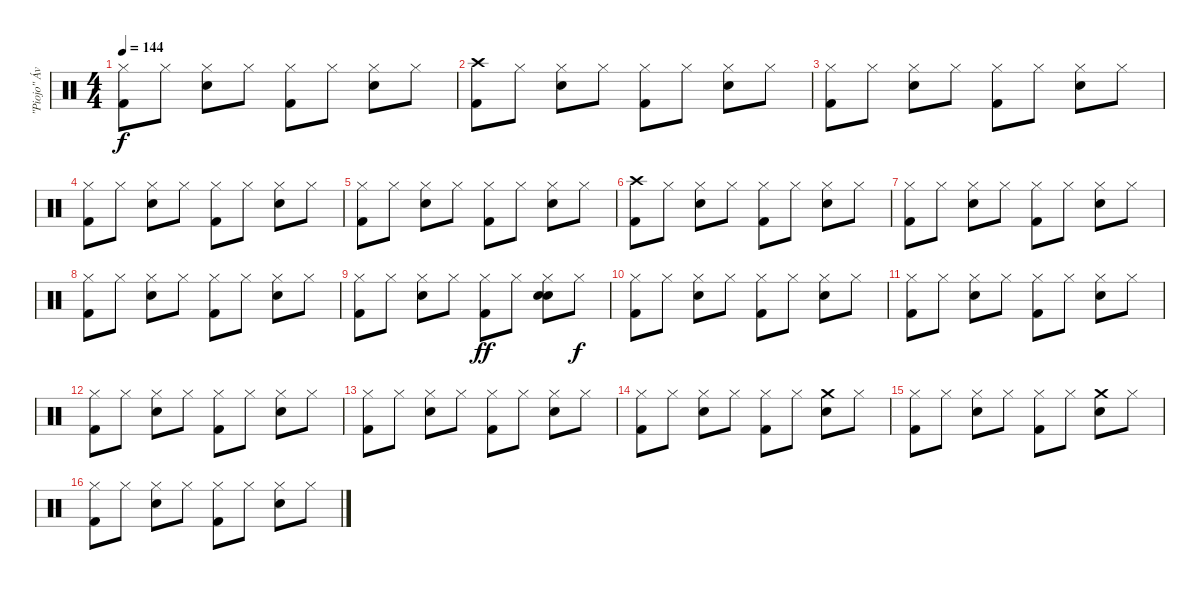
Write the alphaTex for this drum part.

\track ("\"Piojo\" Ávalos" "\"Piojo\" Áv") {instrument percussion}
\staff {score}
\articulation defaults
\ts (4 4)
\tempo 144
\clef neutral
\ks c
("Hi-Hat (closed)" "Kick (hit) 2").8{dy f} "Hi-Hat (closed)".8 ("Hi-Hat (closed)" "Electric Snare (hit)").8 "Hi-Hat (closed)".8 ("Hi-Hat (closed)" "Kick (hit) 2").8 "Hi-Hat (closed)".8 ("Hi-Hat (closed)" "Electric Snare (hit)").8 "Hi-Hat (closed)".8 |
("Crash high (hit)" "Kick (hit) 2").8 "Hi-Hat (closed)".8 ("Hi-Hat (closed)" "Electric Snare (hit)").8 "Hi-Hat (closed)".8 ("Hi-Hat (closed)" "Kick (hit) 2").8 "Hi-Hat (closed)".8 ("Hi-Hat (closed)" "Electric Snare (hit)").8 "Hi-Hat (closed)".8 |
("Hi-Hat (closed)" "Kick (hit) 2").8 "Hi-Hat (closed)".8 ("Hi-Hat (closed)" "Electric Snare (hit)").8 "Hi-Hat (closed)".8 ("Hi-Hat (closed)" "Kick (hit) 2").8 "Hi-Hat (closed)".8 ("Hi-Hat (closed)" "Electric Snare (hit)").8 "Hi-Hat (closed)".8 |
("Hi-Hat (closed)" "Kick (hit) 2").8 "Hi-Hat (closed)".8 ("Hi-Hat (closed)" "Electric Snare (hit)").8 "Hi-Hat (closed)".8 ("Hi-Hat (closed)" "Kick (hit) 2").8 "Hi-Hat (closed)".8 ("Hi-Hat (closed)" "Electric Snare (hit)").8 "Hi-Hat (closed)".8 |
("Hi-Hat (closed)" "Kick (hit) 2").8 "Hi-Hat (closed)".8 ("Hi-Hat (closed)" "Electric Snare (hit)").8 "Hi-Hat (closed)".8 ("Hi-Hat (closed)" "Kick (hit) 2").8 "Hi-Hat (closed)".8 ("Hi-Hat (closed)" "Electric Snare (hit)").8 "Hi-Hat (closed)".8 |
("Crash high (hit)" "Kick (hit) 2").8 "Hi-Hat (closed)".8 ("Hi-Hat (closed)" "Electric Snare (hit)").8 "Hi-Hat (closed)".8 ("Hi-Hat (closed)" "Kick (hit) 2").8 "Hi-Hat (closed)".8 ("Hi-Hat (closed)" "Electric Snare (hit)").8 "Hi-Hat (closed)".8 |
("Hi-Hat (closed)" "Kick (hit) 2").8 "Hi-Hat (closed)".8 ("Hi-Hat (closed)" "Electric Snare (hit)").8 "Hi-Hat (closed)".8 ("Hi-Hat (closed)" "Kick (hit) 2").8 "Hi-Hat (closed)".8 ("Hi-Hat (closed)" "Electric Snare (hit)").8 "Hi-Hat (closed)".8 |
("Hi-Hat (closed)" "Kick (hit) 2").8 "Hi-Hat (closed)".8 ("Hi-Hat (closed)" "Electric Snare (hit)").8 "Hi-Hat (closed)".8 ("Hi-Hat (closed)" "Kick (hit) 2").8 "Hi-Hat (closed)".8 ("Hi-Hat (closed)" "Electric Snare (hit)").8 "Hi-Hat (closed)".8 |
("Hi-Hat (closed)" "Kick (hit) 2").8 "Hi-Hat (closed)".8 ("Hi-Hat (closed)" "Electric Snare (hit)").8 "Hi-Hat (closed)".8 ("Hi-Hat (closed)" "Kick (hit) 2").8{dy ff} "Hi-Hat (closed)".8 ("Hi-Hat (closed)" "Electric Snare (hit)" "Electric Snare (hit)").8 "Hi-Hat (closed)".8{dy f} |
("Hi-Hat (closed)" "Kick (hit) 2").8 "Hi-Hat (closed)".8 ("Hi-Hat (closed)" "Electric Snare (hit)").8 "Hi-Hat (closed)".8 ("Hi-Hat (closed)" "Kick (hit) 2").8 "Hi-Hat (closed)".8 ("Hi-Hat (closed)" "Electric Snare (hit)").8 "Hi-Hat (closed)".8 |
("Hi-Hat (closed)" "Kick (hit) 2").8 "Hi-Hat (closed)".8 ("Hi-Hat (closed)" "Electric Snare (hit)").8 "Hi-Hat (closed)".8 ("Hi-Hat (closed)" "Kick (hit) 2").8 "Hi-Hat (closed)".8 ("Hi-Hat (closed)" "Electric Snare (hit)").8 "Hi-Hat (closed)".8 |
("Hi-Hat (closed)" "Kick (hit) 2").8 "Hi-Hat (closed)".8 ("Hi-Hat (closed)" "Electric Snare (hit)").8 "Hi-Hat (closed)".8 ("Hi-Hat (closed)" "Kick (hit) 2").8 "Hi-Hat (closed)".8 ("Hi-Hat (closed)" "Electric Snare (hit)").8 "Hi-Hat (closed)".8 |
("Hi-Hat (closed)" "Kick (hit) 2").8 "Hi-Hat (closed)".8 ("Hi-Hat (closed)" "Electric Snare (hit)").8 "Hi-Hat (closed)".8 ("Hi-Hat (closed)" "Kick (hit) 2").8 "Hi-Hat (closed)".8 ("Hi-Hat (closed)" "Electric Snare (hit)").8 "Hi-Hat (closed)".8 |
("Hi-Hat (closed)" "Kick (hit) 2").8 "Hi-Hat (closed)".8 ("Hi-Hat (closed)" "Electric Snare (hit)").8 "Hi-Hat (closed)".8 ("Hi-Hat (closed)" "Kick (hit) 2").8 "Hi-Hat (closed)".8 ("Crash medium (hit)" "Electric Snare (hit)").8 "Hi-Hat (closed)".8 |
("Hi-Hat (closed)" "Kick (hit) 2").8 "Hi-Hat (closed)".8 ("Hi-Hat (closed)" "Electric Snare (hit)").8 "Hi-Hat (closed)".8 ("Hi-Hat (closed)" "Kick (hit) 2").8 "Hi-Hat (closed)".8 ("Crash medium (hit)" "Electric Snare (hit)").8 "Hi-Hat (closed)".8 |
("Hi-Hat (closed)" "Kick (hit) 2").8 "Hi-Hat (closed)".8 ("Hi-Hat (closed)" "Electric Snare (hit)").8 "Hi-Hat (closed)".8 ("Hi-Hat (closed)" "Kick (hit) 2").8 "Hi-Hat (closed)".8 ("Hi-Hat (closed)" "Electric Snare (hit)").8 "Hi-Hat (closed)".8
